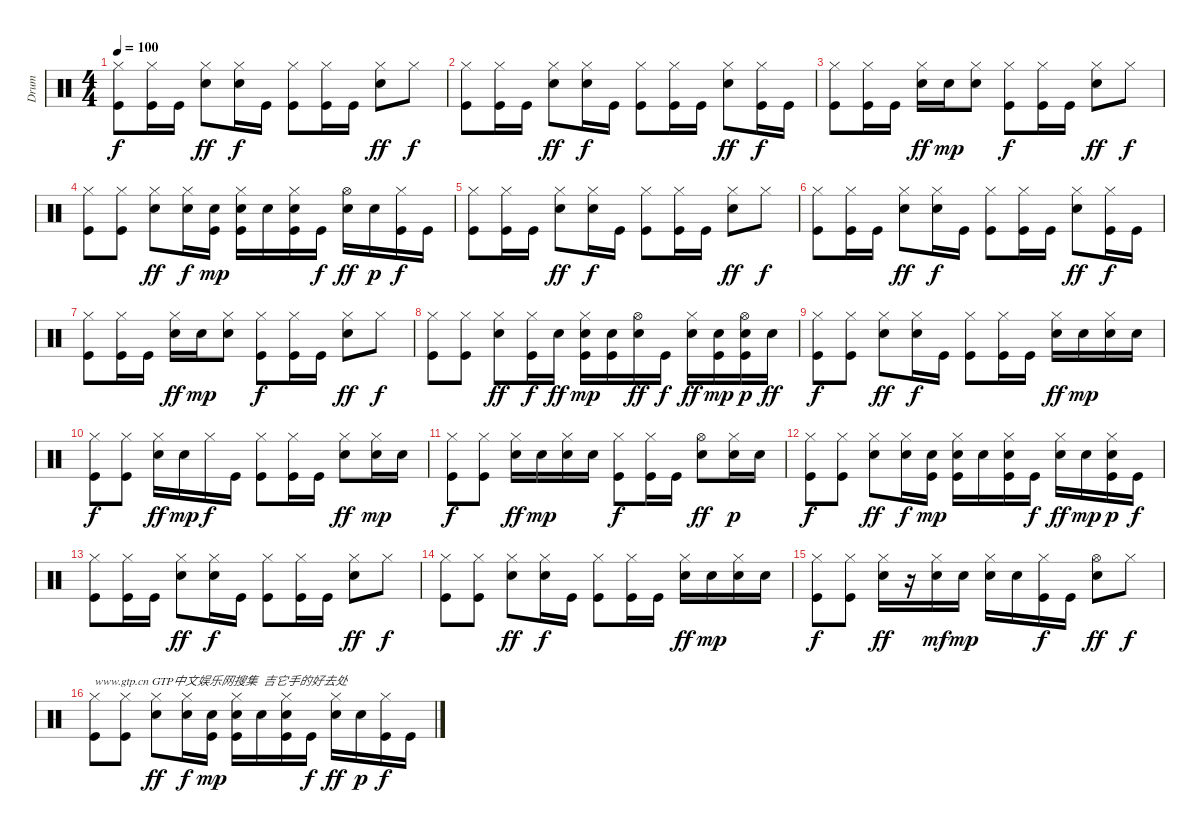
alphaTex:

\track ("Drum" "Drum") {instrument percussion}
\staff {score}
\articulation defaults
\ts (4 4)
\tempo 100
\clef neutral
\ks c
("Hi-Hat (closed)" "Kick (hit)").8{dy f} ("Hi-Hat (closed)" "Kick (hit)").16 "Kick (hit)".16 ("Hi-Hat (closed)" "Snare (hit) 2").8{dy ff} ("Hi-Hat (closed)" "Snare (hit) 2").16{dy f} "Kick (hit)".16 ("Hi-Hat (closed)" "Kick (hit)").8 ("Hi-Hat (closed)" "Kick (hit)").16 "Kick (hit)".16 ("Hi-Hat (closed)" "Snare (hit) 2").8{dy ff} "Hi-Hat (closed)".8{dy f} |
("Hi-Hat (closed)" "Kick (hit)").8 ("Hi-Hat (closed)" "Kick (hit)").16 "Kick (hit)".16 ("Hi-Hat (closed)" "Snare (hit) 2").8{dy ff} ("Hi-Hat (closed)" "Snare (hit) 2").16{dy f} "Kick (hit)".16 ("Hi-Hat (closed)" "Kick (hit)").8 ("Hi-Hat (closed)" "Kick (hit)").16 "Kick (hit)".16 ("Hi-Hat (closed)" "Snare (hit) 2").8{dy ff} ("Hi-Hat (closed)" "Kick (hit)").16{dy f} "Kick (hit)".16 |
("Hi-Hat (closed)" "Kick (hit)").8 ("Hi-Hat (closed)" "Kick (hit)").16 "Kick (hit)".16 ("Hi-Hat (closed)" "Snare (hit) 2").16{dy ff} "Snare (hit) 2".16{dy mp} ("Hi-Hat (closed)" "Snare (hit) 2").8 ("Hi-Hat (closed)" "Kick (hit)").8{dy f} ("Hi-Hat (closed)" "Kick (hit)").16 "Kick (hit)".16 ("Hi-Hat (closed)" "Snare (hit) 2").8{dy ff} "Hi-Hat (closed)".8{dy f} |
("Hi-Hat (closed)" "Kick (hit)").8 ("Hi-Hat (closed)" "Kick (hit)").8 ("Hi-Hat (closed)" "Snare (hit) 2").8{dy ff} ("Hi-Hat (closed)" "Snare (hit) 2").16{dy f} ("Snare (hit) 2" "Kick (hit)").16{dy mp} ("Hi-Hat (closed)" "Snare (hit) 2" "Kick (hit)").16 "Snare (hit) 2".16 ("Hi-Hat (closed)" "Snare (hit) 2" "Kick (hit)").16 "Kick (hit)".16{dy f} ("Hi-Hat (open)" "Snare (hit) 2").16{dy ff} "Snare (hit) 2".16{dy p} ("Hi-Hat (closed)" "Kick (hit)").16{dy f} "Kick (hit)".16 |
("Hi-Hat (closed)" "Kick (hit)").8 ("Hi-Hat (closed)" "Kick (hit)").16 "Kick (hit)".16 ("Hi-Hat (closed)" "Snare (hit) 2").8{dy ff} ("Hi-Hat (closed)" "Snare (hit) 2").16{dy f} "Kick (hit)".16 ("Hi-Hat (closed)" "Kick (hit)").8 ("Hi-Hat (closed)" "Kick (hit)").16 "Kick (hit)".16 ("Hi-Hat (closed)" "Snare (hit) 2").8{dy ff} "Hi-Hat (closed)".8{dy f} |
("Hi-Hat (closed)" "Kick (hit)").8 ("Hi-Hat (closed)" "Kick (hit)").16 "Kick (hit)".16 ("Hi-Hat (closed)" "Snare (hit) 2").8{dy ff} ("Hi-Hat (closed)" "Snare (hit) 2").16{dy f} "Kick (hit)".16 ("Hi-Hat (closed)" "Kick (hit)").8 ("Hi-Hat (closed)" "Kick (hit)").16 "Kick (hit)".16 ("Hi-Hat (closed)" "Snare (hit) 2").8{dy ff} ("Hi-Hat (closed)" "Kick (hit)").16{dy f} "Kick (hit)".16 |
("Hi-Hat (closed)" "Kick (hit)").8 ("Hi-Hat (closed)" "Kick (hit)").16 "Kick (hit)".16 ("Hi-Hat (closed)" "Snare (hit) 2").16{dy ff} "Snare (hit) 2".16{dy mp} ("Hi-Hat (closed)" "Snare (hit) 2").8 ("Hi-Hat (closed)" "Kick (hit)").8{dy f} ("Hi-Hat (closed)" "Kick (hit)").16 "Kick (hit)".16 ("Hi-Hat (closed)" "Snare (hit) 2").8{dy ff} "Hi-Hat (closed)".8{dy f} |
("Hi-Hat (closed)" "Kick (hit)").8 ("Hi-Hat (closed)" "Kick (hit)").8 ("Hi-Hat (closed)" "Snare (hit) 2").8{dy ff} ("Hi-Hat (closed)" "Kick (hit)").16{dy f} "Snare (hit) 2".16{dy ff} ("Hi-Hat (closed)" "Snare (hit) 2" "Kick (hit)").16{dy mp} ("Snare (hit) 2" "Kick (hit)").16 ("Hi-Hat (open)" "Snare (hit) 2").16{dy ff} "Kick (hit)".16{dy f} ("Hi-Hat (closed)" "Snare (hit) 2").16{dy ff} ("Snare (hit) 2" "Kick (hit)").16{dy mp} ("Hi-Hat (open)" "Snare (hit) 2" "Kick (hit)").16{dy p} "Snare (hit) 2".16{dy ff} |
("Hi-Hat (closed)" "Kick (hit)").8{dy f} ("Hi-Hat (closed)" "Kick (hit)").8 ("Hi-Hat (closed)" "Snare (hit) 2").8{dy ff} ("Hi-Hat (closed)" "Snare (hit) 2").16{dy f} "Kick (hit)".16 ("Hi-Hat (closed)" "Kick (hit)").8 ("Hi-Hat (closed)" "Kick (hit)").16 "Kick (hit)".16 ("Hi-Hat (closed)" "Snare (hit) 2").16{dy ff} "Snare (hit) 2".16{dy mp} ("Hi-Hat (closed)" "Snare (hit) 2").16 "Snare (hit) 2".16 |
("Hi-Hat (closed)" "Kick (hit)").8{dy f} ("Hi-Hat (closed)" "Kick (hit)").8 ("Hi-Hat (closed)" "Snare (hit) 2").16{dy ff} "Snare (hit) 2".16{dy mp} "Hi-Hat (closed)".16{dy f} "Kick (hit)".16 ("Hi-Hat (closed)" "Kick (hit)").8 ("Hi-Hat (closed)" "Kick (hit)").16 "Kick (hit)".16 ("Hi-Hat (closed)" "Snare (hit) 2").8{dy ff} ("Hi-Hat (closed)" "Snare (hit) 2").16{dy mp} "Snare (hit) 2".16 |
("Hi-Hat (closed)" "Kick (hit)").8{dy f} ("Hi-Hat (closed)" "Kick (hit)").8 ("Hi-Hat (closed)" "Snare (hit) 2").16{dy ff} "Snare (hit) 2".16{dy mp} ("Hi-Hat (closed)" "Snare (hit) 2").16 "Snare (hit) 2".16 ("Hi-Hat (closed)" "Kick (hit)").8{dy f} ("Hi-Hat (closed)" "Kick (hit)").16 "Kick (hit)".16 ("Hi-Hat (open)" "Snare (hit) 2").8{dy ff} ("Hi-Hat (closed)" "Snare (hit) 2").16{dy p} "Snare (hit) 2".16 |
("Hi-Hat (closed)" "Kick (hit)").8{dy f} ("Hi-Hat (closed)" "Kick (hit)").8 ("Hi-Hat (closed)" "Snare (hit) 2").8{dy ff} ("Hi-Hat (closed)" "Snare (hit) 2").16{dy f} ("Snare (hit) 2" "Kick (hit)").16{dy mp} ("Hi-Hat (closed)" "Snare (hit) 2" "Kick (hit)").16 "Snare (hit) 2".16 ("Hi-Hat (closed)" "Snare (hit) 2" "Kick (hit)").16 "Kick (hit)".16{dy f} ("Hi-Hat (closed)" "Snare (hit) 2").16{dy ff} "Snare (hit) 2".16{dy mp} ("Hi-Hat (closed)" "Snare (hit) 2" "Kick (hit)").16{dy p} "Kick (hit)".16{dy f} |
("Hi-Hat (closed)" "Kick (hit)").8 ("Hi-Hat (closed)" "Kick (hit)").16 "Kick (hit)".16 ("Hi-Hat (closed)" "Snare (hit) 2").8{dy ff} ("Hi-Hat (closed)" "Snare (hit) 2").16{dy f} "Kick (hit)".16 ("Hi-Hat (closed)" "Kick (hit)").8 ("Hi-Hat (closed)" "Kick (hit)").16 "Kick (hit)".16 ("Hi-Hat (closed)" "Snare (hit) 2").8{dy ff} "Hi-Hat (closed)".8{dy f} |
("Hi-Hat (closed)" "Kick (hit)").8 ("Hi-Hat (closed)" "Kick (hit)").8 ("Hi-Hat (closed)" "Snare (hit) 2").8{dy ff} ("Hi-Hat (closed)" "Snare (hit) 2").16{dy f} "Kick (hit)".16 ("Hi-Hat (closed)" "Kick (hit)").8 ("Hi-Hat (closed)" "Kick (hit)").16 "Kick (hit)".16 ("Hi-Hat (closed)" "Snare (hit) 2").16{dy ff} "Snare (hit) 2".16{dy mp} ("Hi-Hat (closed)" "Snare (hit) 2").16 "Snare (hit) 2".16 |
("Hi-Hat (closed)" "Kick (hit)").8{dy f} ("Hi-Hat (closed)" "Kick (hit)").8 ("Hi-Hat (closed)" "Snare (hit) 2").16{dy ff} r.16 ("Hi-Hat (closed)" "Snare (hit) 2").16{dy mf} "Snare (hit) 2".16{dy mp} ("Hi-Hat (closed)" "Snare (hit) 2").16 "Snare (hit) 2".16 ("Hi-Hat (closed)" "Kick (hit)").16{dy f} "Kick (hit)".16 ("Hi-Hat (open)" "Snare (hit) 2").8{dy ff} "Hi-Hat (closed)".8{dy f} |
("Hi-Hat (closed)" "Kick (hit)").8{txt "www.gtp.cn GTP中文娱乐网搜集  吉它手的好去处"} ("Hi-Hat (closed)" "Kick (hit)").8 ("Hi-Hat (closed)" "Snare (hit) 2").8{dy ff} ("Hi-Hat (closed)" "Snare (hit) 2").16{dy f} ("Snare (hit) 2" "Kick (hit)").16{dy mp} ("Hi-Hat (closed)" "Snare (hit) 2" "Kick (hit)").16 "Snare (hit) 2".16 ("Hi-Hat (closed)" "Snare (hit) 2" "Kick (hit)").16 "Kick (hit)".16{dy f} ("Hi-Hat (closed)" "Snare (hit) 2").16{dy ff} "Snare (hit) 2".16{dy p} ("Hi-Hat (closed)" "Kick (hit)").16{dy f} "Kick (hit)".16
